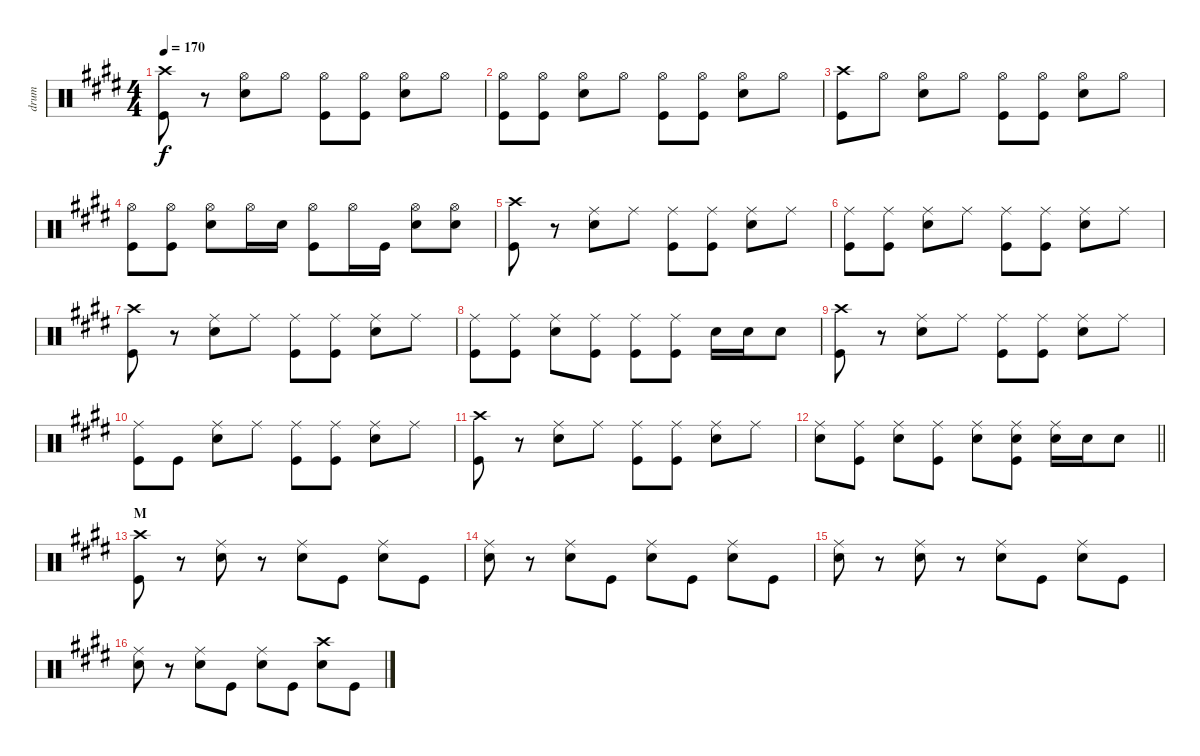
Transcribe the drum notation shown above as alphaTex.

\track ("drum" "drum") {instrument percussion}
\staff {score}
\articulation defaults
\ts (4 4)
\tempo 170
\clef neutral
\ks e
("Crash high (hit)" "Kick (hit)").8{dy f} r.8 ("Hi-Hat (open)" "Snare (hit) 2").8 "Hi-Hat (open)".8 ("Hi-Hat (open)" "Kick (hit)").8 ("Hi-Hat (open)" "Kick (hit)").8 ("Hi-Hat (open)" "Snare (hit) 2").8 "Hi-Hat (open)".8 |
("Hi-Hat (open)" "Kick (hit)").8 ("Hi-Hat (open)" "Kick (hit)").8 ("Hi-Hat (open)" "Snare (hit) 2").8 "Hi-Hat (open)".8 ("Hi-Hat (open)" "Kick (hit)").8 ("Hi-Hat (open)" "Kick (hit)").8 ("Hi-Hat (open)" "Snare (hit) 2").8 "Hi-Hat (open)".8 |
("Crash high (hit)" "Kick (hit)").8 "Hi-Hat (open)".8 ("Hi-Hat (open)" "Snare (hit) 2").8 "Hi-Hat (open)".8 ("Hi-Hat (open)" "Kick (hit)").8 ("Hi-Hat (open)" "Kick (hit)").8 ("Hi-Hat (open)" "Snare (hit) 2").8 "Hi-Hat (open)".8 |
("Hi-Hat (open)" "Kick (hit)").8 ("Hi-Hat (open)" "Kick (hit)").8 ("Hi-Hat (open)" "Snare (hit) 2").8 "Hi-Hat (open)".16 "Snare (hit) 2".16 ("Hi-Hat (open)" "Kick (hit)").8 "Hi-Hat (open)".16 "Kick (hit)".16 ("Hi-Hat (open)" "Snare (hit) 2").8 ("Hi-Hat (open)" "Snare (hit) 2").8 |
("Crash high (hit)" "Kick (hit)").8 r.8 ("Ride (middle)" "Snare (hit) 2").8 "Ride (middle)".8 ("Ride (middle)" "Kick (hit)").8 ("Ride (middle)" "Kick (hit)").8 ("Ride (middle)" "Snare (hit) 2").8 "Ride (middle)".8 |
("Ride (middle)" "Kick (hit)").8 ("Ride (middle)" "Kick (hit)").8 ("Ride (middle)" "Snare (hit) 2").8 "Ride (middle)".8 ("Ride (middle)" "Kick (hit)").8 ("Ride (middle)" "Kick (hit)").8 ("Ride (middle)" "Snare (hit) 2").8 "Ride (middle)".8 |
("Crash high (hit)" "Kick (hit)").8 r.8 ("Ride (middle)" "Snare (hit) 2").8 "Ride (middle)".8 ("Ride (middle)" "Kick (hit)").8 ("Ride (middle)" "Kick (hit)").8 ("Ride (middle)" "Snare (hit) 2").8 "Ride (middle)".8 |
("Ride (middle)" "Kick (hit)").8 ("Ride (middle)" "Kick (hit)").8 ("Ride (middle)" "Snare (hit) 2").8 ("Ride (middle)" "Kick (hit)").8 ("Ride (middle)" "Kick (hit)").8 ("Ride (middle)" "Kick (hit)").8 "Snare (hit) 2".16 "Snare (hit) 2".16 "Snare (hit) 2".8 |
("Crash high (hit)" "Kick (hit)").8 r.8 ("Ride (middle)" "Snare (hit) 2").8 "Ride (middle)".8 ("Ride (middle)" "Kick (hit)").8 ("Ride (middle)" "Kick (hit)").8 ("Ride (middle)" "Snare (hit) 2").8 "Ride (middle)".8 |
("Ride (middle)" "Kick (hit)").8 "Kick (hit)".8 ("Ride (middle)" "Snare (hit) 2").8 "Ride (middle)".8 ("Ride (middle)" "Kick (hit)").8 ("Ride (middle)" "Kick (hit)").8 ("Ride (middle)" "Snare (hit) 2").8 "Ride (middle)".8 |
("Crash high (hit)" "Kick (hit)").8 r.8 ("Ride (middle)" "Snare (hit) 2").8 "Ride (middle)".8 ("Ride (middle)" "Kick (hit)").8 ("Ride (middle)" "Kick (hit)").8 ("Ride (middle)" "Snare (hit) 2").8 "Ride (middle)".8 |
\barLineRight lightlight
("Ride (middle)" "Snare (hit) 2").8 ("Ride (middle)" "Kick (hit)").8 ("Ride (middle)" "Snare (hit) 2").8 ("Ride (middle)" "Kick (hit)").8 ("Ride (middle)" "Snare (hit) 2").8 ("Ride (middle)" "Snare (hit) 2" "Kick (hit)").8 ("Ride (middle)" "Snare (hit) 2").16 "Snare (hit) 2".16 "Snare (hit) 2".8 |
\section ("" "M")
("Crash high (hit)" "Kick (hit)").8 r.8 ("Ride (middle)" "Snare (hit) 2").8 r.8 ("Ride (middle)" "Snare (hit) 2").8 "Kick (hit)".8 ("Ride (middle)" "Snare (hit) 2").8 "Kick (hit)".8 |
("Ride (middle)" "Snare (hit) 2").8 r.8 ("Ride (middle)" "Snare (hit) 2").8 "Kick (hit)".8 ("Ride (middle)" "Snare (hit) 2").8 "Kick (hit)".8 ("Ride (middle)" "Snare (hit) 2").8 "Kick (hit)".8 |
("Ride (middle)" "Snare (hit) 2").8 r.8 ("Ride (middle)" "Snare (hit) 2").8 r.8 ("Ride (middle)" "Snare (hit) 2").8 "Kick (hit)".8 ("Ride (middle)" "Snare (hit) 2").8 "Kick (hit)".8 |
("Ride (middle)" "Snare (hit) 2").8 r.8 ("Ride (middle)" "Snare (hit) 2").8 "Kick (hit)".8 ("Ride (middle)" "Snare (hit) 2").8 "Kick (hit)".8 ("Crash high (hit)" "Snare (hit) 2").8 "Kick (hit)".8
